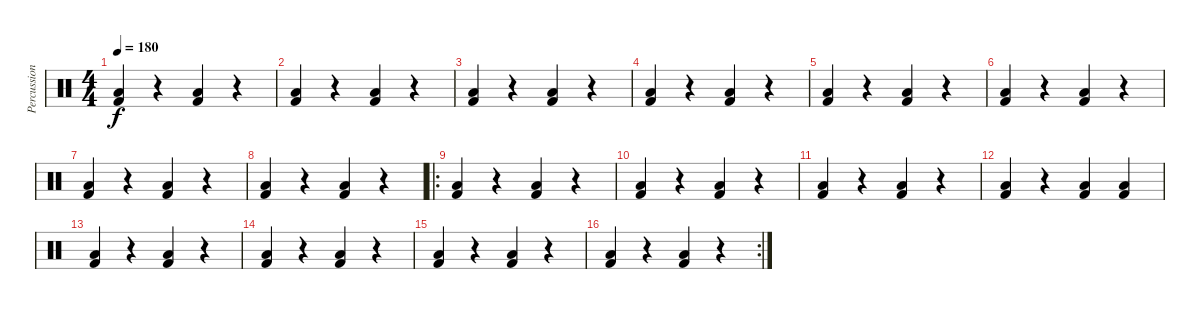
\track ("Percussion" "Percussion") {instrument percussion}
\staff {score}
\articulation defaults
\ts (4 4)
\tempo 180
\clef neutral
\ks c
("Low Floor Tom (hit)" "Kick (hit) 2").4{dy f} r.4 ("Low Floor Tom (hit)" "Kick (hit) 2").4 r.4 |
("Low Floor Tom (hit)" "Kick (hit) 2").4 r.4 ("Low Floor Tom (hit)" "Kick (hit) 2").4 r.4 |
("Low Floor Tom (hit)" "Kick (hit) 2").4 r.4 ("Low Floor Tom (hit)" "Kick (hit) 2").4 r.4 |
("Low Floor Tom (hit)" "Kick (hit) 2").4 r.4 ("Low Floor Tom (hit)" "Kick (hit) 2").4 r.4 |
("Low Floor Tom (hit)" "Kick (hit) 2").4 r.4 ("Low Floor Tom (hit)" "Kick (hit) 2").4 r.4 |
("Low Floor Tom (hit)" "Kick (hit) 2").4 r.4 ("Low Floor Tom (hit)" "Kick (hit) 2").4 r.4 |
("Low Floor Tom (hit)" "Kick (hit) 2").4 r.4 ("Low Floor Tom (hit)" "Kick (hit) 2").4 r.4 |
("Low Floor Tom (hit)" "Kick (hit) 2").4 r.4 ("Low Floor Tom (hit)" "Kick (hit) 2").4 r.4 |
\ro
("Low Floor Tom (hit)" "Kick (hit) 2").4 r.4 ("Low Floor Tom (hit)" "Kick (hit) 2").4 r.4 |
("Low Floor Tom (hit)" "Kick (hit) 2").4 r.4 ("Low Floor Tom (hit)" "Kick (hit) 2").4 r.4 |
("Low Floor Tom (hit)" "Kick (hit) 2").4 r.4 ("Low Floor Tom (hit)" "Kick (hit) 2").4 r.4 |
("Low Floor Tom (hit)" "Kick (hit) 2").4 r.4 ("Low Floor Tom (hit)" "Kick (hit) 2").4 ("Low Floor Tom (hit)" "Kick (hit) 2").4 |
("Low Floor Tom (hit)" "Kick (hit) 2").4 r.4 ("Low Floor Tom (hit)" "Kick (hit) 2").4 r.4 |
("Low Floor Tom (hit)" "Kick (hit) 2").4 r.4 ("Low Floor Tom (hit)" "Kick (hit) 2").4 r.4 |
("Low Floor Tom (hit)" "Kick (hit) 2").4 r.4 ("Low Floor Tom (hit)" "Kick (hit) 2").4 r.4 |
\rc 2
("Low Floor Tom (hit)" "Kick (hit) 2").4 r.4 ("Low Floor Tom (hit)" "Kick (hit) 2").4 r.4
